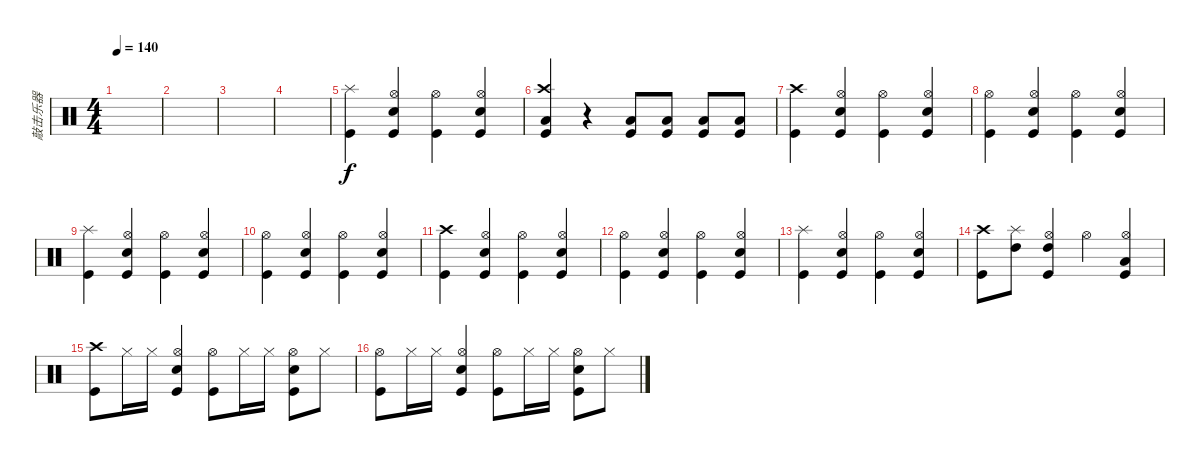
\track ("敲击乐器" "敲击乐器") {instrument percussion}
\staff {score}
\articulation defaults
\ts (4 4)
\tempo 140
\clef neutral
\ks c
|
|
|
|
("Splash (hit)" "Kick (hit)").4 ("Hi-Hat (open)" "Electric Snare (hit)" "Kick (hit)").4 ("Hi-Hat (open)" "Kick (hit)").4 ("Hi-Hat (open)" "Electric Snare (hit)" "Kick (hit)").4 |
("Crash high (hit)" "Low Tom (hit)" "Kick (hit)").4 r.4 ("Low Floor Tom (hit)" "Kick (hit)").8 ("Low Floor Tom (hit)" "Kick (hit)").8 ("Low Floor Tom (hit)" "Kick (hit)").8 ("Low Floor Tom (hit)" "Kick (hit)").8 |
("Crash high (hit)" "Kick (hit)").4 ("Hi-Hat (open)" "Electric Snare (hit)" "Kick (hit)").4 ("Hi-Hat (open)" "Kick (hit)").4 ("Hi-Hat (open)" "Electric Snare (hit)" "Kick (hit)").4 |
("Hi-Hat (open)" "Kick (hit)").4 ("Hi-Hat (open)" "Electric Snare (hit)" "Kick (hit)").4 ("Hi-Hat (open)" "Kick (hit)").4 ("Hi-Hat (open)" "Electric Snare (hit)" "Kick (hit)").4 |
("Splash (hit)" "Kick (hit)").4 ("Hi-Hat (open)" "Electric Snare (hit)" "Kick (hit)").4 ("Hi-Hat (open)" "Kick (hit)").4 ("Hi-Hat (open)" "Electric Snare (hit)" "Kick (hit)").4 |
("Hi-Hat (open)" "Kick (hit)").4 ("Hi-Hat (open)" "Electric Snare (hit)" "Kick (hit)").4 ("Hi-Hat (open)" "Kick (hit)").4 ("Hi-Hat (open)" "Electric Snare (hit)" "Kick (hit)").4 |
("Crash high (hit)" "Kick (hit)").4 ("Hi-Hat (open)" "Electric Snare (hit)" "Kick (hit)").4 ("Hi-Hat (open)" "Kick (hit)").4 ("Hi-Hat (open)" "Electric Snare (hit)" "Kick (hit)").4 |
("Hi-Hat (open)" "Kick (hit)").4 ("Hi-Hat (open)" "Electric Snare (hit)" "Kick (hit)").4 ("Hi-Hat (open)" "Kick (hit)").4 ("Hi-Hat (open)" "Electric Snare (hit)" "Kick (hit)").4 |
("Splash (hit)" "Kick (hit)").4 ("Hi-Hat (open)" "Electric Snare (hit)" "Kick (hit)").4 ("Hi-Hat (open)" "Kick (hit)").4 ("Hi-Hat (open)" "Electric Snare (hit)" "Kick (hit)").4 |
("Crash high (hit)" "Kick (hit)").8 ("Splash (hit)" "High Tom (hit)").8 ("High Tom (hit)" "Hi-Hat (open)" "Kick (hit)").4 "Hi-Hat (open)".4 ("Hi-Hat (open)" "Low Tom (hit)" "Kick (hit)").4 |
("Crash high (hit)" "Kick (hit)").8 "Hi-Hat (closed)".16 "Hi-Hat (closed)".16 ("Hi-Hat (open)" "Electric Snare (hit)" "Kick (hit)").4 ("Hi-Hat (open)" "Kick (hit)").8 "Hi-Hat (closed)".16 "Hi-Hat (closed)".16 ("Hi-Hat (open)" "Electric Snare (hit)" "Kick (hit)").8 "Hi-Hat (closed)".8 |
("Hi-Hat (open)" "Kick (hit)").8 "Hi-Hat (closed)".16 "Hi-Hat (closed)".16 ("Hi-Hat (open)" "Electric Snare (hit)" "Kick (hit)").4 ("Hi-Hat (open)" "Kick (hit)").8 "Hi-Hat (closed)".16 "Hi-Hat (closed)".16 ("Hi-Hat (open)" "Electric Snare (hit)" "Kick (hit)").8 "Hi-Hat (closed)".8
